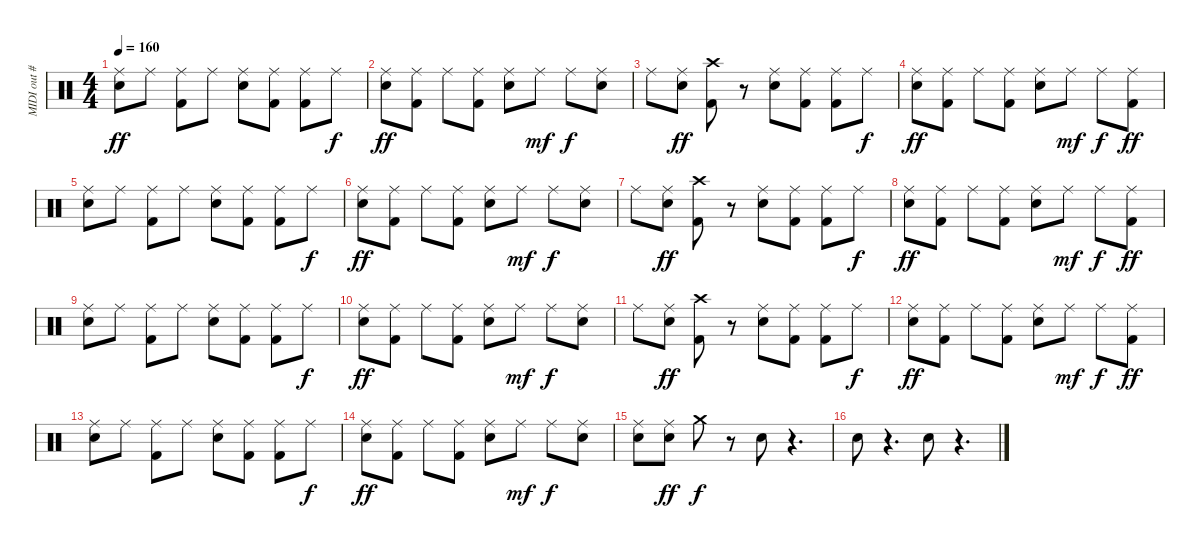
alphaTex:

\track ("MIDI out #4" "MIDI out #") {instrument percussion}
\staff {score}
\articulation defaults
\ts (4 4)
\tempo 160
\clef neutral
\ks c
("Ride (middle)" "Snare (hit) 2").8{dy ff} "Ride (middle)".8 ("Ride (middle)" "Kick (hit) 2").8 "Ride (middle)".8 ("Ride (middle)" "Snare (hit) 2").8 ("Ride (middle)" "Kick (hit) 2").8 ("Ride (middle)" "Kick (hit) 2").8 "Ride (middle)".8{dy f} |
("Ride (middle)" "Snare (hit) 2").8{dy ff} ("Ride (middle)" "Kick (hit) 2").8 "Ride (middle)".8 ("Ride (middle)" "Kick (hit) 2").8 ("Ride (middle)" "Snare (hit) 2").8 "Ride (middle)".8{dy mf} "Ride (middle)".8{dy f} ("Snare (hit) 2" "Ride (middle)").8 |
"Ride (middle)".8 ("Snare (hit) 2" "Ride (middle)").8{dy ff} ("Crash high (hit)" "Kick (hit) 2").8 r.8 ("Ride (middle)" "Snare (hit) 2").8 ("Ride (middle)" "Kick (hit) 2").8 ("Ride (middle)" "Kick (hit) 2").8 "Ride (middle)".8{dy f} |
("Ride (middle)" "Snare (hit) 2").8{dy ff} ("Ride (middle)" "Kick (hit) 2").8 "Ride (middle)".8 ("Ride (middle)" "Kick (hit) 2").8 ("Ride (middle)" "Snare (hit) 2").8 "Ride (middle)".8{dy mf} "Ride (middle)".8{dy f} ("Ride (middle)" "Kick (hit) 2").8{dy ff} |
("Ride (middle)" "Snare (hit) 2").8 "Ride (middle)".8 ("Ride (middle)" "Kick (hit) 2").8 "Ride (middle)".8 ("Ride (middle)" "Snare (hit) 2").8 ("Ride (middle)" "Kick (hit) 2").8 ("Ride (middle)" "Kick (hit) 2").8 "Ride (middle)".8{dy f} |
("Ride (middle)" "Snare (hit) 2").8{dy ff} ("Ride (middle)" "Kick (hit) 2").8 "Ride (middle)".8 ("Ride (middle)" "Kick (hit) 2").8 ("Ride (middle)" "Snare (hit) 2").8 "Ride (middle)".8{dy mf} "Ride (middle)".8{dy f} ("Snare (hit) 2" "Ride (middle)").8 |
"Ride (middle)".8 ("Snare (hit) 2" "Ride (middle)").8{dy ff} ("Crash high (hit)" "Kick (hit) 2").8 r.8 ("Ride (middle)" "Snare (hit) 2").8 ("Ride (middle)" "Kick (hit) 2").8 ("Ride (middle)" "Kick (hit) 2").8 "Ride (middle)".8{dy f} |
("Ride (middle)" "Snare (hit) 2").8{dy ff} ("Ride (middle)" "Kick (hit) 2").8 "Ride (middle)".8 ("Ride (middle)" "Kick (hit) 2").8 ("Ride (middle)" "Snare (hit) 2").8 "Ride (middle)".8{dy mf} "Ride (middle)".8{dy f} ("Ride (middle)" "Kick (hit) 2").8{dy ff} |
("Ride (middle)" "Snare (hit) 2").8 "Ride (middle)".8 ("Ride (middle)" "Kick (hit) 2").8 "Ride (middle)".8 ("Ride (middle)" "Snare (hit) 2").8 ("Ride (middle)" "Kick (hit) 2").8 ("Ride (middle)" "Kick (hit) 2").8 "Ride (middle)".8{dy f} |
("Ride (middle)" "Snare (hit) 2").8{dy ff} ("Ride (middle)" "Kick (hit) 2").8 "Ride (middle)".8 ("Ride (middle)" "Kick (hit) 2").8 ("Ride (middle)" "Snare (hit) 2").8 "Ride (middle)".8{dy mf} "Ride (middle)".8{dy f} ("Snare (hit) 2" "Ride (middle)").8 |
"Ride (middle)".8 ("Snare (hit) 2" "Ride (middle)").8{dy ff} ("Crash high (hit)" "Kick (hit) 2").8 r.8 ("Ride (middle)" "Snare (hit) 2").8 ("Ride (middle)" "Kick (hit) 2").8 ("Ride (middle)" "Kick (hit) 2").8 "Ride (middle)".8{dy f} |
("Ride (middle)" "Snare (hit) 2").8{dy ff} ("Ride (middle)" "Kick (hit) 2").8 "Ride (middle)".8 ("Ride (middle)" "Kick (hit) 2").8 ("Ride (middle)" "Snare (hit) 2").8 "Ride (middle)".8{dy mf} "Ride (middle)".8{dy f} ("Ride (middle)" "Kick (hit) 2").8{dy ff} |
("Ride (middle)" "Snare (hit) 2").8 "Ride (middle)".8 ("Ride (middle)" "Kick (hit) 2").8 "Ride (middle)".8 ("Ride (middle)" "Snare (hit) 2").8 ("Ride (middle)" "Kick (hit) 2").8 ("Ride (middle)" "Kick (hit) 2").8 "Ride (middle)".8{dy f} |
("Ride (middle)" "Snare (hit) 2").8{dy ff} ("Ride (middle)" "Kick (hit) 2").8 "Ride (middle)".8 ("Ride (middle)" "Kick (hit) 2").8 ("Ride (middle)" "Snare (hit) 2").8 "Ride (middle)".8{dy mf} "Ride (middle)".8{dy f} ("Snare (hit) 2" "Ride (middle)").8 |
("Snare (hit) 2" "Ride (middle)").8 ("Snare (hit) 2" "Ride (middle)").8{dy ff} "Crash medium (hit)".8{dy f} r.8 "Snare (hit) 2".8 r.4{d} |
"Snare (hit) 2".8 r.4{d} "Snare (hit) 2".8 r.4{d}
